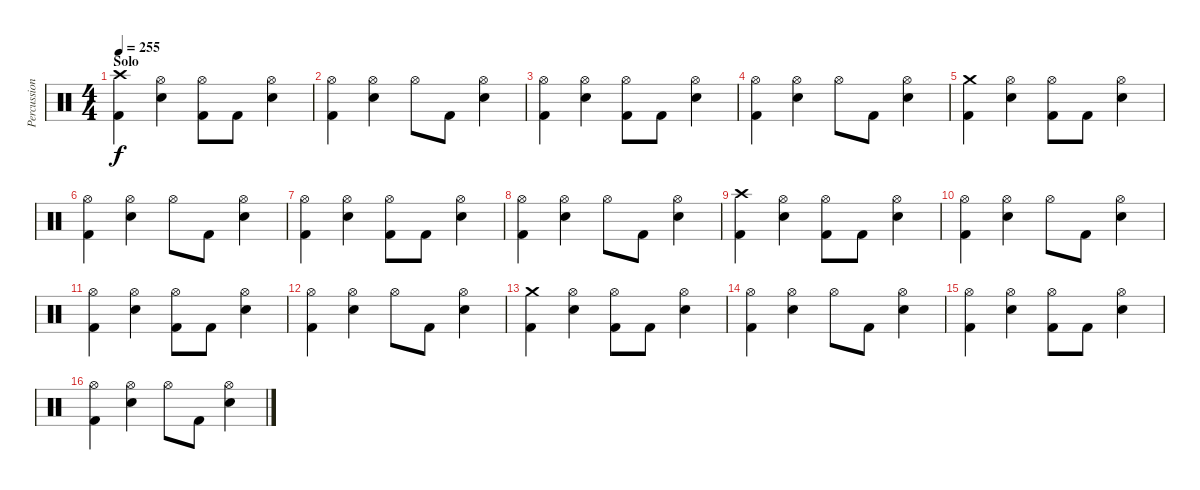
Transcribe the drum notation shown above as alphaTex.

\track ("Percussion" "Percussion") {instrument percussion}
\staff {score}
\articulation defaults
\ts (4 4)
\section ("" "Solo")
\tempo 255
\clef neutral
\ks c
("Crash high (hit)" "Kick (hit) 2").4{dy f} ("Hi-Hat (open)" "Electric Snare (hit)").4 ("Hi-Hat (open)" "Kick (hit) 2").8 "Kick (hit) 2".8 ("Hi-Hat (open)" "Electric Snare (hit)").4 |
("Hi-Hat (open)" "Kick (hit) 2").4 ("Hi-Hat (open)" "Electric Snare (hit)").4 "Hi-Hat (open)".8 "Kick (hit) 2".8 ("Hi-Hat (open)" "Electric Snare (hit)").4 |
("Hi-Hat (open)" "Kick (hit) 2").4 ("Hi-Hat (open)" "Electric Snare (hit)").4 ("Hi-Hat (open)" "Kick (hit) 2").8 "Kick (hit) 2".8 ("Hi-Hat (open)" "Electric Snare (hit)").4 |
("Hi-Hat (open)" "Kick (hit) 2").4 ("Hi-Hat (open)" "Electric Snare (hit)").4 "Hi-Hat (open)".8 "Kick (hit) 2".8 ("Hi-Hat (open)" "Electric Snare (hit)").4 |
("Crash medium (hit)" "Kick (hit) 2").4 ("Hi-Hat (open)" "Electric Snare (hit)").4 ("Hi-Hat (open)" "Kick (hit) 2").8 "Kick (hit) 2".8 ("Hi-Hat (open)" "Electric Snare (hit)").4 |
("Hi-Hat (open)" "Kick (hit) 2").4 ("Hi-Hat (open)" "Electric Snare (hit)").4 "Hi-Hat (open)".8 "Kick (hit) 2".8 ("Hi-Hat (open)" "Electric Snare (hit)").4 |
("Hi-Hat (open)" "Kick (hit) 2").4 ("Hi-Hat (open)" "Electric Snare (hit)").4 ("Hi-Hat (open)" "Kick (hit) 2").8 "Kick (hit) 2".8 ("Hi-Hat (open)" "Electric Snare (hit)").4 |
("Hi-Hat (open)" "Kick (hit) 2").4 ("Hi-Hat (open)" "Electric Snare (hit)").4 "Hi-Hat (open)".8 "Kick (hit) 2".8 ("Hi-Hat (open)" "Electric Snare (hit)").4 |
("Crash high (hit)" "Kick (hit) 2").4 ("Hi-Hat (open)" "Electric Snare (hit)").4 ("Hi-Hat (open)" "Kick (hit) 2").8 "Kick (hit) 2".8 ("Hi-Hat (open)" "Electric Snare (hit)").4 |
("Hi-Hat (open)" "Kick (hit) 2").4 ("Hi-Hat (open)" "Electric Snare (hit)").4 "Hi-Hat (open)".8 "Kick (hit) 2".8 ("Hi-Hat (open)" "Electric Snare (hit)").4 |
("Hi-Hat (open)" "Kick (hit) 2").4 ("Hi-Hat (open)" "Electric Snare (hit)").4 ("Hi-Hat (open)" "Kick (hit) 2").8 "Kick (hit) 2".8 ("Hi-Hat (open)" "Electric Snare (hit)").4 |
("Hi-Hat (open)" "Kick (hit) 2").4 ("Hi-Hat (open)" "Electric Snare (hit)").4 "Hi-Hat (open)".8 "Kick (hit) 2".8 ("Hi-Hat (open)" "Electric Snare (hit)").4 |
("Crash medium (hit)" "Kick (hit) 2").4 ("Hi-Hat (open)" "Electric Snare (hit)").4 ("Hi-Hat (open)" "Kick (hit) 2").8 "Kick (hit) 2".8 ("Hi-Hat (open)" "Electric Snare (hit)").4 |
("Hi-Hat (open)" "Kick (hit) 2").4 ("Hi-Hat (open)" "Electric Snare (hit)").4 "Hi-Hat (open)".8 "Kick (hit) 2".8 ("Hi-Hat (open)" "Electric Snare (hit)").4 |
("Hi-Hat (open)" "Kick (hit) 2").4 ("Hi-Hat (open)" "Electric Snare (hit)").4 ("Hi-Hat (open)" "Kick (hit) 2").8 "Kick (hit) 2".8 ("Hi-Hat (open)" "Electric Snare (hit)").4 |
("Hi-Hat (open)" "Kick (hit) 2").4 ("Hi-Hat (open)" "Electric Snare (hit)").4 "Hi-Hat (open)".8 "Kick (hit) 2".8 ("Hi-Hat (open)" "Electric Snare (hit)").4
